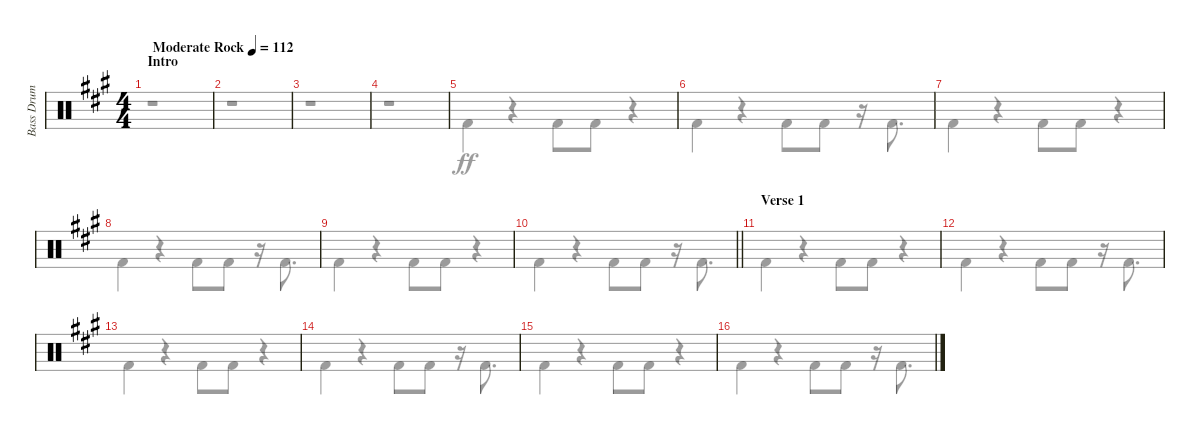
\track ("Bass Drum" "Bass Drum") {instrument percussion}
\staff {score}
\articulation defaults
\voice
\ts (4 4)
\section ("" "Intro")
\tempo (112 "Moderate Rock")
\clef neutral
\ks f#minor
|
|
|
|
|
|
|
|
|
\barLineRight lightlight
|
\section ("" "Verse 1")
|
|
|
|
|
\voice
\clef neutral
\ks f#minor
r.1{dy ff} |
r.1 |
r.1 |
r.1 |
"Kick (hit) 2".4 r.4 "Kick (hit) 2".8 "Kick (hit) 2".8 r.4 |
"Kick (hit) 2".4 r.4 "Kick (hit) 2".8 "Kick (hit) 2".8 r.16 "Kick (hit) 2".8{d} |
"Kick (hit) 2".4 r.4 "Kick (hit) 2".8 "Kick (hit) 2".8 r.4 |
"Kick (hit) 2".4 r.4 "Kick (hit) 2".8 "Kick (hit) 2".8 r.16 "Kick (hit) 2".8{d} |
"Kick (hit) 2".4 r.4 "Kick (hit) 2".8 "Kick (hit) 2".8 r.4 |
\barLineRight lightlight "Kick (hit) 2".4
r.4 "Kick (hit) 2".8 "Kick (hit) 2".8 r.16 "Kick (hit) 2".8{d} |
"Kick (hit) 2".4 r.4 "Kick (hit) 2".8 "Kick (hit) 2".8 r.4 |
"Kick (hit) 2".4 r.4 "Kick (hit) 2".8 "Kick (hit) 2".8 r.16 "Kick (hit) 2".8{d} |
"Kick (hit) 2".4 r.4 "Kick (hit) 2".8 "Kick (hit) 2".8 r.4 |
"Kick (hit) 2".4 r.4 "Kick (hit) 2".8 "Kick (hit) 2".8 r.16 "Kick (hit) 2".8{d} |
"Kick (hit) 2".4 r.4 "Kick (hit) 2".8 "Kick (hit) 2".8 r.4 |
"Kick (hit) 2".4 r.4 "Kick (hit) 2".8 "Kick (hit) 2".8 r.16 "Kick (hit) 2".8{d}
